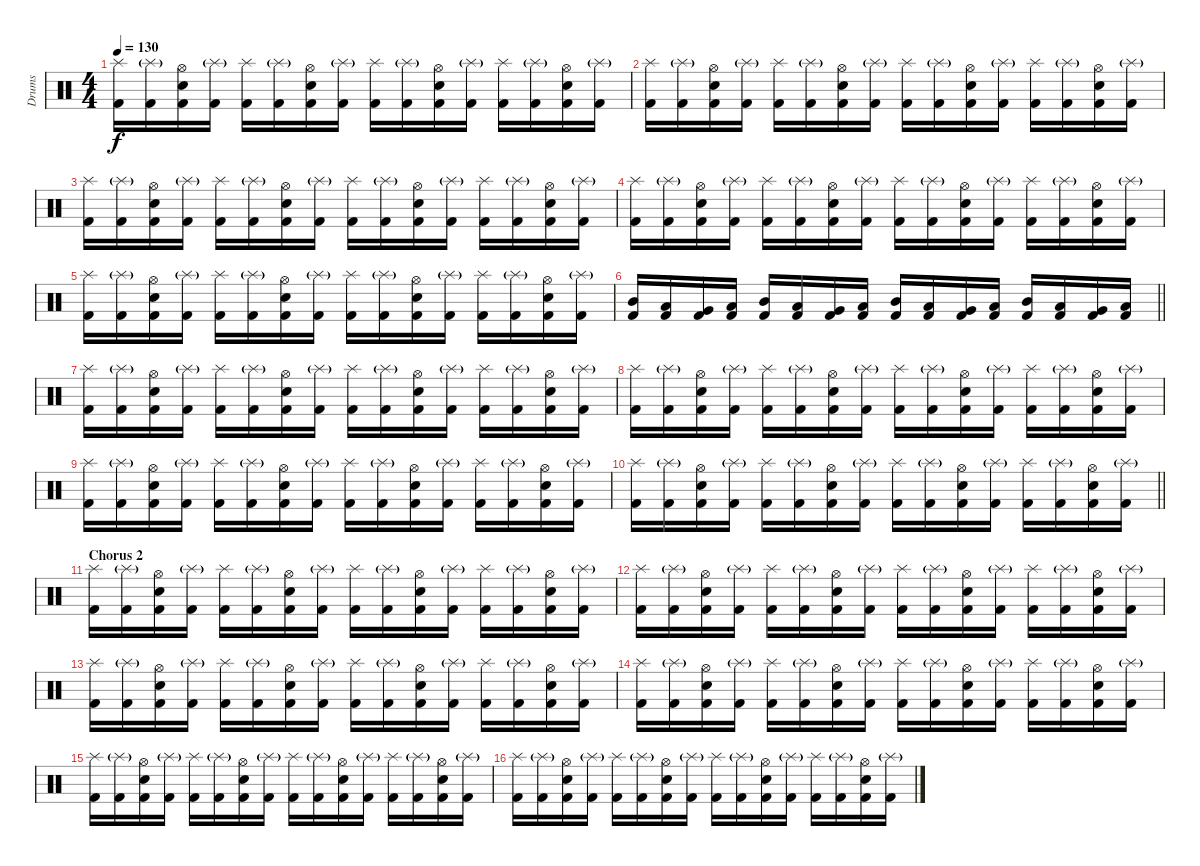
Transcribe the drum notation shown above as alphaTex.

\track ("Drums" "Drums") {instrument percussion}
\staff {score}
\articulation defaults
\ts (4 4)
\tempo 130
\clef neutral
\ks c
("Splash (hit)" "Kick (hit) 2").16{dy f} ("Splash (hit)"{g} "Kick (hit) 2").16 ("Hi-Hat (open)" "Electric Snare (hit)" "Kick (hit) 2").16 ("Splash (hit)"{g} "Kick (hit) 2").16 ("Splash (hit)" "Kick (hit) 2").16 ("Splash (hit)"{g} "Kick (hit) 2").16 ("Hi-Hat (open)" "Electric Snare (hit)" "Kick (hit) 2").16 ("Splash (hit)"{g} "Kick (hit) 2").16 ("Splash (hit)" "Kick (hit) 2").16 ("Splash (hit)"{g} "Kick (hit) 2").16 ("Hi-Hat (open)" "Electric Snare (hit)" "Kick (hit) 2").16 ("Splash (hit)"{g} "Kick (hit) 2").16 ("Splash (hit)" "Kick (hit) 2").16 ("Splash (hit)"{g} "Kick (hit) 2").16 ("Hi-Hat (open)" "Electric Snare (hit)" "Kick (hit) 2").16 ("Splash (hit)"{g} "Kick (hit) 2").16 |
("Splash (hit)" "Kick (hit) 2").16 ("Splash (hit)"{g} "Kick (hit) 2").16 ("Hi-Hat (open)" "Electric Snare (hit)" "Kick (hit) 2").16 ("Splash (hit)"{g} "Kick (hit) 2").16 ("Splash (hit)" "Kick (hit) 2").16 ("Splash (hit)"{g} "Kick (hit) 2").16 ("Hi-Hat (open)" "Electric Snare (hit)" "Kick (hit) 2").16 ("Splash (hit)"{g} "Kick (hit) 2").16 ("Splash (hit)" "Kick (hit) 2").16 ("Splash (hit)"{g} "Kick (hit) 2").16 ("Hi-Hat (open)" "Electric Snare (hit)" "Kick (hit) 2").16 ("Splash (hit)"{g} "Kick (hit) 2").16 ("Splash (hit)" "Kick (hit) 2").16 ("Splash (hit)"{g} "Kick (hit) 2").16 ("Hi-Hat (open)" "Electric Snare (hit)" "Kick (hit) 2").16 ("Splash (hit)"{g} "Kick (hit) 2").16 |
("Splash (hit)" "Kick (hit) 2").16 ("Splash (hit)"{g} "Kick (hit) 2").16 ("Hi-Hat (open)" "Electric Snare (hit)" "Kick (hit) 2").16 ("Splash (hit)"{g} "Kick (hit) 2").16 ("Splash (hit)" "Kick (hit) 2").16 ("Splash (hit)"{g} "Kick (hit) 2").16 ("Hi-Hat (open)" "Electric Snare (hit)" "Kick (hit) 2").16 ("Splash (hit)"{g} "Kick (hit) 2").16 ("Splash (hit)" "Kick (hit) 2").16 ("Splash (hit)"{g} "Kick (hit) 2").16 ("Hi-Hat (open)" "Electric Snare (hit)" "Kick (hit) 2").16 ("Splash (hit)"{g} "Kick (hit) 2").16 ("Splash (hit)" "Kick (hit) 2").16 ("Splash (hit)"{g} "Kick (hit) 2").16 ("Hi-Hat (open)" "Electric Snare (hit)" "Kick (hit) 2").16 ("Splash (hit)"{g} "Kick (hit) 2").16 |
("Splash (hit)" "Kick (hit) 2").16 ("Splash (hit)"{g} "Kick (hit) 2").16 ("Hi-Hat (open)" "Electric Snare (hit)" "Kick (hit) 2").16 ("Splash (hit)"{g} "Kick (hit) 2").16 ("Splash (hit)" "Kick (hit) 2").16 ("Splash (hit)"{g} "Kick (hit) 2").16 ("Hi-Hat (open)" "Electric Snare (hit)" "Kick (hit) 2").16 ("Splash (hit)"{g} "Kick (hit) 2").16 ("Splash (hit)" "Kick (hit) 2").16 ("Splash (hit)"{g} "Kick (hit) 2").16 ("Hi-Hat (open)" "Electric Snare (hit)" "Kick (hit) 2").16 ("Splash (hit)"{g} "Kick (hit) 2").16 ("Splash (hit)" "Kick (hit) 2").16 ("Splash (hit)"{g} "Kick (hit) 2").16 ("Hi-Hat (open)" "Electric Snare (hit)" "Kick (hit) 2").16 ("Splash (hit)"{g} "Kick (hit) 2").16 |
("Splash (hit)" "Kick (hit) 2").16 ("Splash (hit)"{g} "Kick (hit) 2").16 ("Hi-Hat (open)" "Electric Snare (hit)" "Kick (hit) 2").16 ("Splash (hit)"{g} "Kick (hit) 2").16 ("Splash (hit)" "Kick (hit) 2").16 ("Splash (hit)"{g} "Kick (hit) 2").16 ("Hi-Hat (open)" "Electric Snare (hit)" "Kick (hit) 2").16 ("Splash (hit)"{g} "Kick (hit) 2").16 ("Splash (hit)" "Kick (hit) 2").16 ("Splash (hit)"{g} "Kick (hit) 2").16 ("Hi-Hat (open)" "Electric Snare (hit)" "Kick (hit) 2").16 ("Splash (hit)"{g} "Kick (hit) 2").16 ("Splash (hit)" "Kick (hit) 2").16 ("Splash (hit)"{g} "Kick (hit) 2").16 ("Hi-Hat (open)" "Electric Snare (hit)" "Kick (hit) 2").16 ("Splash (hit)"{g} "Kick (hit) 2").16 |
\barLineRight lightlight
("Mid Tom (hit)" "Kick (hit) 2").16 ("Low Tom (hit)" "Kick (hit) 2").16 ("Very Low Tom (hit)" "Kick (hit) 2").16 ("Low Floor Tom (hit)" "Kick (hit) 2").16 ("Mid Tom (hit)" "Kick (hit) 2").16 ("Low Tom (hit)" "Kick (hit) 2").16 ("Very Low Tom (hit)" "Kick (hit) 2").16 ("Low Floor Tom (hit)" "Kick (hit) 2").16 ("Mid Tom (hit)" "Kick (hit) 2").16 ("Low Tom (hit)" "Kick (hit) 2").16 ("Very Low Tom (hit)" "Kick (hit) 2").16 ("Low Floor Tom (hit)" "Kick (hit) 2").16 ("Mid Tom (hit)" "Kick (hit) 2").16 ("Low Tom (hit)" "Kick (hit) 2").16 ("Very Low Tom (hit)" "Kick (hit) 2").16 ("Low Floor Tom (hit)" "Kick (hit) 2").16 |
("Splash (hit)" "Kick (hit) 2").16 ("Splash (hit)"{g} "Kick (hit) 2").16 ("Hi-Hat (open)" "Electric Snare (hit)" "Kick (hit) 2").16 ("Splash (hit)"{g} "Kick (hit) 2").16 ("Splash (hit)" "Kick (hit) 2").16 ("Splash (hit)"{g} "Kick (hit) 2").16 ("Hi-Hat (open)" "Electric Snare (hit)" "Kick (hit) 2").16 ("Splash (hit)"{g} "Kick (hit) 2").16 ("Splash (hit)" "Kick (hit) 2").16 ("Splash (hit)"{g} "Kick (hit) 2").16 ("Hi-Hat (open)" "Electric Snare (hit)" "Kick (hit) 2").16 ("Splash (hit)"{g} "Kick (hit) 2").16 ("Splash (hit)" "Kick (hit) 2").16 ("Splash (hit)"{g} "Kick (hit) 2").16 ("Hi-Hat (open)" "Electric Snare (hit)" "Kick (hit) 2").16 ("Splash (hit)"{g} "Kick (hit) 2").16 |
("Splash (hit)" "Kick (hit) 2").16 ("Splash (hit)"{g} "Kick (hit) 2").16 ("Hi-Hat (open)" "Electric Snare (hit)" "Kick (hit) 2").16 ("Splash (hit)"{g} "Kick (hit) 2").16 ("Splash (hit)" "Kick (hit) 2").16 ("Splash (hit)"{g} "Kick (hit) 2").16 ("Hi-Hat (open)" "Electric Snare (hit)" "Kick (hit) 2").16 ("Splash (hit)"{g} "Kick (hit) 2").16 ("Splash (hit)" "Kick (hit) 2").16 ("Splash (hit)"{g} "Kick (hit) 2").16 ("Hi-Hat (open)" "Electric Snare (hit)" "Kick (hit) 2").16 ("Splash (hit)"{g} "Kick (hit) 2").16 ("Splash (hit)" "Kick (hit) 2").16 ("Splash (hit)"{g} "Kick (hit) 2").16 ("Hi-Hat (open)" "Electric Snare (hit)" "Kick (hit) 2").16 ("Splash (hit)"{g} "Kick (hit) 2").16 |
("Splash (hit)" "Kick (hit) 2").16 ("Splash (hit)"{g} "Kick (hit) 2").16 ("Hi-Hat (open)" "Electric Snare (hit)" "Kick (hit) 2").16 ("Splash (hit)"{g} "Kick (hit) 2").16 ("Splash (hit)" "Kick (hit) 2").16 ("Splash (hit)"{g} "Kick (hit) 2").16 ("Hi-Hat (open)" "Electric Snare (hit)" "Kick (hit) 2").16 ("Splash (hit)"{g} "Kick (hit) 2").16 ("Splash (hit)" "Kick (hit) 2").16 ("Splash (hit)"{g} "Kick (hit) 2").16 ("Hi-Hat (open)" "Electric Snare (hit)" "Kick (hit) 2").16 ("Splash (hit)"{g} "Kick (hit) 2").16 ("Splash (hit)" "Kick (hit) 2").16 ("Splash (hit)"{g} "Kick (hit) 2").16 ("Hi-Hat (open)" "Electric Snare (hit)" "Kick (hit) 2").16 ("Splash (hit)"{g} "Kick (hit) 2").16 |
\barLineRight lightlight
("Splash (hit)" "Kick (hit) 2").16 ("Splash (hit)"{g} "Kick (hit) 2").16 ("Hi-Hat (open)" "Electric Snare (hit)" "Kick (hit) 2").16 ("Splash (hit)"{g} "Kick (hit) 2").16 ("Splash (hit)" "Kick (hit) 2").16 ("Splash (hit)"{g} "Kick (hit) 2").16 ("Hi-Hat (open)" "Electric Snare (hit)" "Kick (hit) 2").16 ("Splash (hit)"{g} "Kick (hit) 2").16 ("Splash (hit)" "Kick (hit) 2").16 ("Splash (hit)"{g} "Kick (hit) 2").16 ("Hi-Hat (open)" "Electric Snare (hit)" "Kick (hit) 2").16 ("Splash (hit)"{g} "Kick (hit) 2").16 ("Splash (hit)" "Kick (hit) 2").16 ("Splash (hit)"{g} "Kick (hit) 2").16 ("Hi-Hat (open)" "Electric Snare (hit)" "Kick (hit) 2").16 ("Splash (hit)"{g} "Kick (hit) 2").16 |
\section ("" "Chorus 2")
("Splash (hit)" "Kick (hit) 2").16 ("Splash (hit)"{g} "Kick (hit) 2").16 ("Hi-Hat (open)" "Electric Snare (hit)" "Kick (hit) 2").16 ("Splash (hit)"{g} "Kick (hit) 2").16 ("Splash (hit)" "Kick (hit) 2").16 ("Splash (hit)"{g} "Kick (hit) 2").16 ("Hi-Hat (open)" "Electric Snare (hit)" "Kick (hit) 2").16 ("Splash (hit)"{g} "Kick (hit) 2").16 ("Splash (hit)" "Kick (hit) 2").16 ("Splash (hit)"{g} "Kick (hit) 2").16 ("Hi-Hat (open)" "Electric Snare (hit)" "Kick (hit) 2").16 ("Splash (hit)"{g} "Kick (hit) 2").16 ("Splash (hit)" "Kick (hit) 2").16 ("Splash (hit)"{g} "Kick (hit) 2").16 ("Hi-Hat (open)" "Electric Snare (hit)" "Kick (hit) 2").16 ("Splash (hit)"{g} "Kick (hit) 2").16 |
("Splash (hit)" "Kick (hit) 2").16 ("Splash (hit)"{g} "Kick (hit) 2").16 ("Hi-Hat (open)" "Electric Snare (hit)" "Kick (hit) 2").16 ("Splash (hit)"{g} "Kick (hit) 2").16 ("Splash (hit)" "Kick (hit) 2").16 ("Splash (hit)"{g} "Kick (hit) 2").16 ("Hi-Hat (open)" "Electric Snare (hit)" "Kick (hit) 2").16 ("Splash (hit)"{g} "Kick (hit) 2").16 ("Splash (hit)" "Kick (hit) 2").16 ("Splash (hit)"{g} "Kick (hit) 2").16 ("Hi-Hat (open)" "Electric Snare (hit)" "Kick (hit) 2").16 ("Splash (hit)"{g} "Kick (hit) 2").16 ("Splash (hit)" "Kick (hit) 2").16 ("Splash (hit)"{g} "Kick (hit) 2").16 ("Hi-Hat (open)" "Electric Snare (hit)" "Kick (hit) 2").16 ("Splash (hit)"{g} "Kick (hit) 2").16 |
("Splash (hit)" "Kick (hit) 2").16 ("Splash (hit)"{g} "Kick (hit) 2").16 ("Hi-Hat (open)" "Electric Snare (hit)" "Kick (hit) 2").16 ("Splash (hit)"{g} "Kick (hit) 2").16 ("Splash (hit)" "Kick (hit) 2").16 ("Splash (hit)"{g} "Kick (hit) 2").16 ("Hi-Hat (open)" "Electric Snare (hit)" "Kick (hit) 2").16 ("Splash (hit)"{g} "Kick (hit) 2").16 ("Splash (hit)" "Kick (hit) 2").16 ("Splash (hit)"{g} "Kick (hit) 2").16 ("Hi-Hat (open)" "Electric Snare (hit)" "Kick (hit) 2").16 ("Splash (hit)"{g} "Kick (hit) 2").16 ("Splash (hit)" "Kick (hit) 2").16 ("Splash (hit)"{g} "Kick (hit) 2").16 ("Hi-Hat (open)" "Electric Snare (hit)" "Kick (hit) 2").16 ("Splash (hit)"{g} "Kick (hit) 2").16 |
("Splash (hit)" "Kick (hit) 2").16 ("Splash (hit)"{g} "Kick (hit) 2").16 ("Hi-Hat (open)" "Electric Snare (hit)" "Kick (hit) 2").16 ("Splash (hit)"{g} "Kick (hit) 2").16 ("Splash (hit)" "Kick (hit) 2").16 ("Splash (hit)"{g} "Kick (hit) 2").16 ("Hi-Hat (open)" "Electric Snare (hit)" "Kick (hit) 2").16 ("Splash (hit)"{g} "Kick (hit) 2").16 ("Splash (hit)" "Kick (hit) 2").16 ("Splash (hit)"{g} "Kick (hit) 2").16 ("Hi-Hat (open)" "Electric Snare (hit)" "Kick (hit) 2").16 ("Splash (hit)"{g} "Kick (hit) 2").16 ("Splash (hit)" "Kick (hit) 2").16 ("Splash (hit)"{g} "Kick (hit) 2").16 ("Hi-Hat (open)" "Electric Snare (hit)" "Kick (hit) 2").16 ("Splash (hit)"{g} "Kick (hit) 2").16 |
("Splash (hit)" "Kick (hit) 2").16 ("Splash (hit)"{g} "Kick (hit) 2").16 ("Hi-Hat (open)" "Electric Snare (hit)" "Kick (hit) 2").16 ("Splash (hit)"{g} "Kick (hit) 2").16 ("Splash (hit)" "Kick (hit) 2").16 ("Splash (hit)"{g} "Kick (hit) 2").16 ("Hi-Hat (open)" "Electric Snare (hit)" "Kick (hit) 2").16 ("Splash (hit)"{g} "Kick (hit) 2").16 ("Splash (hit)" "Kick (hit) 2").16 ("Splash (hit)"{g} "Kick (hit) 2").16 ("Hi-Hat (open)" "Electric Snare (hit)" "Kick (hit) 2").16 ("Splash (hit)"{g} "Kick (hit) 2").16 ("Splash (hit)" "Kick (hit) 2").16 ("Splash (hit)"{g} "Kick (hit) 2").16 ("Hi-Hat (open)" "Electric Snare (hit)" "Kick (hit) 2").16 ("Splash (hit)"{g} "Kick (hit) 2").16 |
("Splash (hit)" "Kick (hit) 2").16 ("Splash (hit)"{g} "Kick (hit) 2").16 ("Hi-Hat (open)" "Electric Snare (hit)" "Kick (hit) 2").16 ("Splash (hit)"{g} "Kick (hit) 2").16 ("Splash (hit)" "Kick (hit) 2").16 ("Splash (hit)"{g} "Kick (hit) 2").16 ("Hi-Hat (open)" "Electric Snare (hit)" "Kick (hit) 2").16 ("Splash (hit)"{g} "Kick (hit) 2").16 ("Splash (hit)" "Kick (hit) 2").16 ("Splash (hit)"{g} "Kick (hit) 2").16 ("Hi-Hat (open)" "Electric Snare (hit)" "Kick (hit) 2").16 ("Splash (hit)"{g} "Kick (hit) 2").16 ("Splash (hit)" "Kick (hit) 2").16 ("Splash (hit)"{g} "Kick (hit) 2").16 ("Hi-Hat (open)" "Electric Snare (hit)" "Kick (hit) 2").16 ("Splash (hit)"{g} "Kick (hit) 2").16
